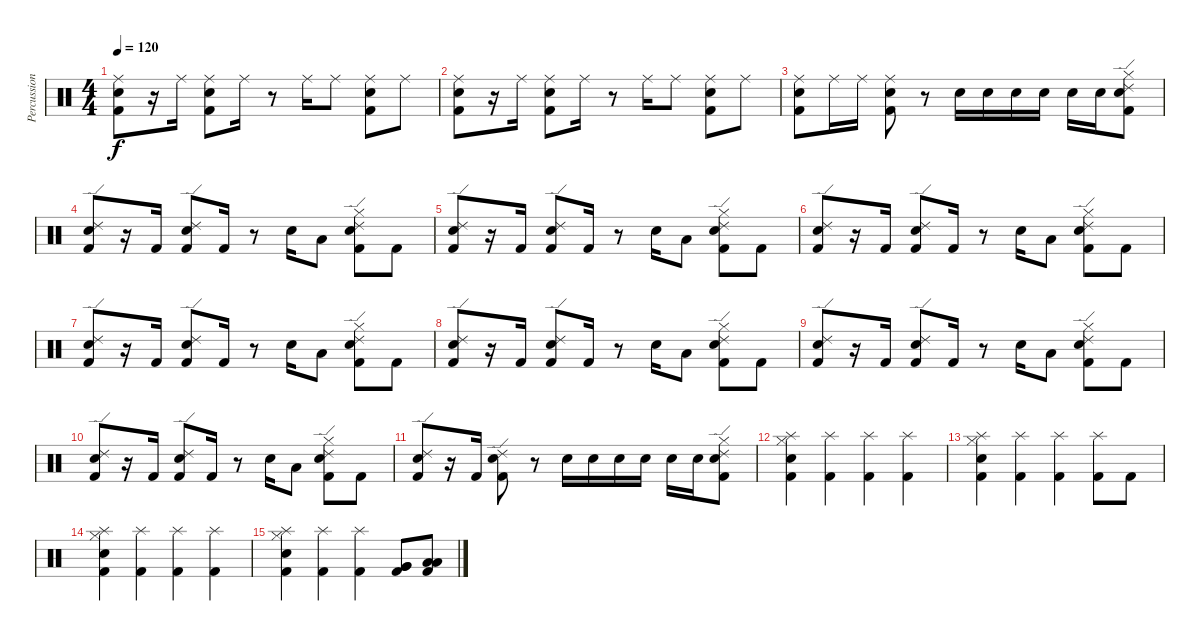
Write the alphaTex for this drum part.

\track ("Percussions" "Percussion") {instrument percussion}
\staff {score}
\articulation defaults
\ts (4 4)
\tempo 120
\clef neutral
\ks c
("Ride (middle)" "Electric Snare (hit)" "Kick (hit) 2").8{dy f} r.16 "Ride (middle)".16 ("Ride (middle)" "Electric Snare (hit)" "Kick (hit) 2").8 "Ride (middle)".16 r.8 "Ride (middle)".16 "Ride (middle)".8 ("Ride (middle)" "Electric Snare (hit)" "Kick (hit) 2").8 "Ride (middle)".8 |
("Ride (middle)" "Electric Snare (hit)" "Kick (hit) 2").8 r.16 "Ride (middle)".16 ("Ride (middle)" "Electric Snare (hit)" "Kick (hit) 2").8 "Ride (middle)".16 r.8 "Ride (middle)".16 "Ride (middle)".8 ("Ride (middle)" "Electric Snare (hit)" "Kick (hit) 2").8 "Ride (middle)".8 |
("Ride (middle)" "Electric Snare (hit)" "Kick (hit) 2").8 "Ride (middle)".16 "Ride (middle)".16 ("Ride (middle)" "Electric Snare (hit)" "Kick (hit) 2").8 r.8 "Electric Snare (hit)".16 "Electric Snare (hit)".16 "Electric Snare (hit)".16 "Electric Snare (hit)".16 "Electric Snare (hit)".16 "Electric Snare (hit)".16 ("Ride (edge) 2" "Hi-Hat (closed)" "Electric Snare (hit)" "Kick (hit) 2").8 |
("Ride (edge) 2" "Electric Snare (hit)" "Kick (hit) 2").8 r.16 "Kick (hit) 2".16 ("Ride (edge) 2" "Electric Snare (hit)" "Kick (hit) 2").8 "Kick (hit) 2".16 r.8 "Electric Snare (hit)".16 "Low Floor Tom (hit)".8 ("Ride (edge) 2" "Hi-Hat (closed)" "Electric Snare (hit)" "Kick (hit) 2").8 "Kick (hit) 2".8 |
("Ride (edge) 2" "Electric Snare (hit)" "Kick (hit) 2").8 r.16 "Kick (hit) 2".16 ("Ride (edge) 2" "Electric Snare (hit)" "Kick (hit) 2").8 "Kick (hit) 2".16 r.8 "Electric Snare (hit)".16 "Low Floor Tom (hit)".8 ("Ride (edge) 2" "Hi-Hat (closed)" "Electric Snare (hit)" "Kick (hit) 2").8 "Kick (hit) 2".8 |
("Ride (edge) 2" "Electric Snare (hit)" "Kick (hit) 2").8 r.16 "Kick (hit) 2".16 ("Ride (edge) 2" "Electric Snare (hit)" "Kick (hit) 2").8 "Kick (hit) 2".16 r.8 "Electric Snare (hit)".16 "Low Floor Tom (hit)".8 ("Ride (edge) 2" "Hi-Hat (closed)" "Electric Snare (hit)" "Kick (hit) 2").8 "Kick (hit) 2".8 |
("Ride (edge) 2" "Electric Snare (hit)" "Kick (hit) 2").8 r.16 "Kick (hit) 2".16 ("Ride (edge) 2" "Electric Snare (hit)" "Kick (hit) 2").8 "Kick (hit) 2".16 r.8 "Electric Snare (hit)".16 "Low Floor Tom (hit)".8 ("Ride (edge) 2" "Hi-Hat (closed)" "Electric Snare (hit)" "Kick (hit) 2").8 "Kick (hit) 2".8 |
("Ride (edge) 2" "Electric Snare (hit)" "Kick (hit) 2").8 r.16 "Kick (hit) 2".16 ("Ride (edge) 2" "Electric Snare (hit)" "Kick (hit) 2").8 "Kick (hit) 2".16 r.8 "Electric Snare (hit)".16 "Low Floor Tom (hit)".8 ("Ride (edge) 2" "Hi-Hat (closed)" "Electric Snare (hit)" "Kick (hit) 2").8 "Kick (hit) 2".8 |
("Ride (edge) 2" "Electric Snare (hit)" "Kick (hit) 2").8 r.16 "Kick (hit) 2".16 ("Ride (edge) 2" "Electric Snare (hit)" "Kick (hit) 2").8 "Kick (hit) 2".16 r.8 "Electric Snare (hit)".16 "Low Floor Tom (hit)".8 ("Ride (edge) 2" "Hi-Hat (closed)" "Electric Snare (hit)" "Kick (hit) 2").8 "Kick (hit) 2".8 |
("Ride (edge) 2" "Electric Snare (hit)" "Kick (hit) 2").8 r.16 "Kick (hit) 2".16 ("Ride (edge) 2" "Electric Snare (hit)" "Kick (hit) 2").8 "Kick (hit) 2".16 r.8 "Electric Snare (hit)".16 "Low Floor Tom (hit)".8 ("Ride (edge) 2" "Hi-Hat (closed)" "Electric Snare (hit)" "Kick (hit) 2").8 "Kick (hit) 2".8 |
("Ride (edge) 2" "Electric Snare (hit)" "Kick (hit) 2").8 r.16 "Kick (hit) 2".16 ("Ride (edge) 2" "Electric Snare (hit)" "Kick (hit) 2").8 r.8 "Electric Snare (hit)".16 "Electric Snare (hit)".16 "Electric Snare (hit)".16 "Electric Snare (hit)".16 "Electric Snare (hit)".16 "Electric Snare (hit)".16 ("Ride (edge) 2" "Hi-Hat (closed)" "Electric Snare (hit)" "Kick (hit) 2").8 |
("Splash (hit)" "Hi-Hat (closed)" "Electric Snare (hit)" "Kick (hit) 2").4 ("Splash (hit)" "Kick (hit) 2").4 ("Splash (hit)" "Kick (hit) 2").4 ("Splash (hit)" "Kick (hit) 2").4 |
("Splash (hit)" "Hi-Hat (closed)" "Electric Snare (hit)" "Kick (hit) 2").4 ("Splash (hit)" "Kick (hit) 2").4 ("Splash (hit)" "Kick (hit) 2").4 ("Splash (hit)" "Kick (hit) 2").8 "Kick (hit) 2".8 |
("Splash (hit)" "Hi-Hat (closed)" "Electric Snare (hit)" "Kick (hit) 2").4 ("Splash (hit)" "Kick (hit) 2").4 ("Splash (hit)" "Kick (hit) 2").4 ("Splash (hit)" "Kick (hit) 2").4 |
("Splash (hit)" "Hi-Hat (closed)" "Electric Snare (hit)" "Kick (hit) 2").4 ("Splash (hit)" "Kick (hit) 2").4 ("Splash (hit)" "Kick (hit) 2").4 ("Very Low Tom (hit)" "Very Low Tom (hit)" "Kick (hit) 2").8 ("Low Floor Tom (hit)" "Low Floor Tom (hit)" "Kick (hit) 2").8
